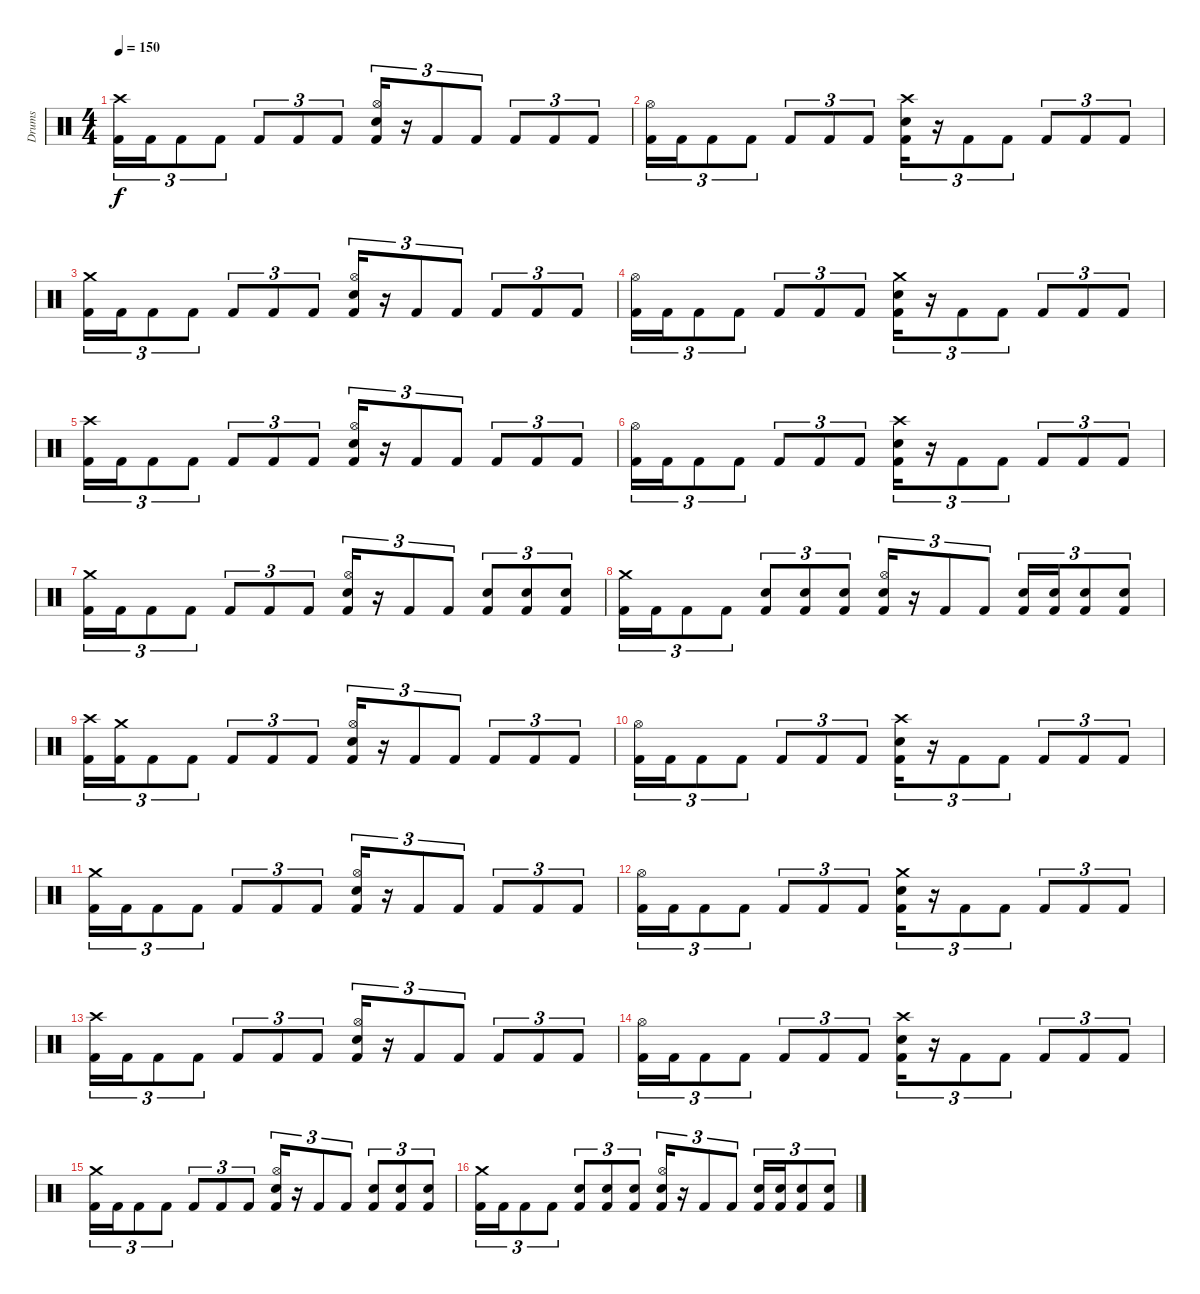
\track ("Drums" "Drums") {instrument percussion}
\staff {score}
\articulation defaults
\ts (4 4)
\tempo 150
\clef neutral
\ks c
("Crash high (hit)" "Kick (hit) 2").16{tu (3 2) dy f} "Kick (hit) 2".16{tu (3 2)} "Kick (hit) 2".8{tu (3 2)} "Kick (hit) 2".8{tu (3 2)} "Kick (hit) 2".8{tu (3 2)} "Kick (hit) 2".8{tu (3 2)} "Kick (hit) 2".8{tu (3 2)} ("Hi-Hat (open)" "Snare (hit) 2" "Kick (hit) 2").16{tu (3 2)} r.16{tu (3 2)} "Kick (hit) 2".8{tu (3 2)} "Kick (hit) 2".8{tu (3 2)} "Kick (hit) 2".8{tu (3 2)} "Kick (hit) 2".8{tu (3 2)} "Kick (hit) 2".8{tu (3 2)} |
("Hi-Hat (open)" "Kick (hit) 2").16{tu (3 2)} "Kick (hit) 2".16{tu (3 2)} "Kick (hit) 2".8{tu (3 2)} "Kick (hit) 2".8{tu (3 2)} "Kick (hit) 2".8{tu (3 2)} "Kick (hit) 2".8{tu (3 2)} "Kick (hit) 2".8{tu (3 2)} ("Crash high (hit)" "Snare (hit) 2" "Kick (hit) 2").16{tu (3 2)} r.16{tu (3 2)} "Kick (hit) 2".8{tu (3 2)} "Kick (hit) 2".8{tu (3 2)} "Kick (hit) 2".8{tu (3 2)} "Kick (hit) 2".8{tu (3 2)} "Kick (hit) 2".8{tu (3 2)} |
("Crash medium (hit)" "Kick (hit) 2").16{tu (3 2)} "Kick (hit) 2".16{tu (3 2)} "Kick (hit) 2".8{tu (3 2)} "Kick (hit) 2".8{tu (3 2)} "Kick (hit) 2".8{tu (3 2)} "Kick (hit) 2".8{tu (3 2)} "Kick (hit) 2".8{tu (3 2)} ("Hi-Hat (open)" "Snare (hit) 2" "Kick (hit) 2").16{tu (3 2)} r.16{tu (3 2)} "Kick (hit) 2".8{tu (3 2)} "Kick (hit) 2".8{tu (3 2)} "Kick (hit) 2".8{tu (3 2)} "Kick (hit) 2".8{tu (3 2)} "Kick (hit) 2".8{tu (3 2)} |
("Hi-Hat (open)" "Kick (hit) 2").16{tu (3 2)} "Kick (hit) 2".16{tu (3 2)} "Kick (hit) 2".8{tu (3 2)} "Kick (hit) 2".8{tu (3 2)} "Kick (hit) 2".8{tu (3 2)} "Kick (hit) 2".8{tu (3 2)} "Kick (hit) 2".8{tu (3 2)} ("Crash medium (hit)" "Snare (hit) 2" "Kick (hit) 2").16{tu (3 2)} r.16{tu (3 2)} "Kick (hit) 2".8{tu (3 2)} "Kick (hit) 2".8{tu (3 2)} "Kick (hit) 2".8{tu (3 2)} "Kick (hit) 2".8{tu (3 2)} "Kick (hit) 2".8{tu (3 2)} |
("Crash high (hit)" "Kick (hit) 2").16{tu (3 2)} "Kick (hit) 2".16{tu (3 2)} "Kick (hit) 2".8{tu (3 2)} "Kick (hit) 2".8{tu (3 2)} "Kick (hit) 2".8{tu (3 2)} "Kick (hit) 2".8{tu (3 2)} "Kick (hit) 2".8{tu (3 2)} ("Hi-Hat (open)" "Snare (hit) 2" "Kick (hit) 2").16{tu (3 2)} r.16{tu (3 2)} "Kick (hit) 2".8{tu (3 2)} "Kick (hit) 2".8{tu (3 2)} "Kick (hit) 2".8{tu (3 2)} "Kick (hit) 2".8{tu (3 2)} "Kick (hit) 2".8{tu (3 2)} |
("Hi-Hat (open)" "Kick (hit) 2").16{tu (3 2)} "Kick (hit) 2".16{tu (3 2)} "Kick (hit) 2".8{tu (3 2)} "Kick (hit) 2".8{tu (3 2)} "Kick (hit) 2".8{tu (3 2)} "Kick (hit) 2".8{tu (3 2)} "Kick (hit) 2".8{tu (3 2)} ("Crash high (hit)" "Snare (hit) 2" "Kick (hit) 2").16{tu (3 2)} r.16{tu (3 2)} "Kick (hit) 2".8{tu (3 2)} "Kick (hit) 2".8{tu (3 2)} "Kick (hit) 2".8{tu (3 2)} "Kick (hit) 2".8{tu (3 2)} "Kick (hit) 2".8{tu (3 2)} |
("Crash medium (hit)" "Kick (hit) 2").16{tu (3 2)} "Kick (hit) 2".16{tu (3 2)} "Kick (hit) 2".8{tu (3 2)} "Kick (hit) 2".8{tu (3 2)} "Kick (hit) 2".8{tu (3 2)} "Kick (hit) 2".8{tu (3 2)} "Kick (hit) 2".8{tu (3 2)} ("Hi-Hat (open)" "Snare (hit) 2" "Kick (hit) 2").16{tu (3 2)} r.16{tu (3 2)} "Kick (hit) 2".8{tu (3 2)} "Kick (hit) 2".8{tu (3 2)} ("Electric Snare (hit)" "Kick (hit) 2").8{tu (3 2)} ("Electric Snare (hit)" "Kick (hit) 2").8{tu (3 2)} ("Electric Snare (hit)" "Kick (hit) 2").8{tu (3 2)} |
("Crash medium (hit)" "Kick (hit) 2").16{tu (3 2)} "Kick (hit) 2".16{tu (3 2)} "Kick (hit) 2".8{tu (3 2)} "Kick (hit) 2".8{tu (3 2)} ("Electric Snare (hit)" "Kick (hit) 2").8{tu (3 2)} ("Electric Snare (hit)" "Kick (hit) 2").8{tu (3 2)} ("Electric Snare (hit)" "Kick (hit) 2").8{tu (3 2)} ("Hi-Hat (open)" "Snare (hit) 2" "Kick (hit) 2").16{tu (3 2)} r.16{tu (3 2)} "Kick (hit) 2".8{tu (3 2)} "Kick (hit) 2".8{tu (3 2)} ("Electric Snare (hit)" "Kick (hit) 2").16{tu (3 2)} ("Electric Snare (hit)" "Kick (hit) 2").16{tu (3 2)} ("Electric Snare (hit)" "Kick (hit) 2").8{tu (3 2)} ("Electric Snare (hit)" "Kick (hit) 2").8{tu (3 2)} |
("Crash high (hit)" "Kick (hit) 2").16{tu (3 2)} ("Crash medium (hit)" "Kick (hit) 2").16{tu (3 2)} "Kick (hit) 2".8{tu (3 2)} "Kick (hit) 2".8{tu (3 2)} "Kick (hit) 2".8{tu (3 2)} "Kick (hit) 2".8{tu (3 2)} "Kick (hit) 2".8{tu (3 2)} ("Hi-Hat (open)" "Snare (hit) 2" "Kick (hit) 2").16{tu (3 2)} r.16{tu (3 2)} "Kick (hit) 2".8{tu (3 2)} "Kick (hit) 2".8{tu (3 2)} "Kick (hit) 2".8{tu (3 2)} "Kick (hit) 2".8{tu (3 2)} "Kick (hit) 2".8{tu (3 2)} |
("Hi-Hat (open)" "Kick (hit) 2").16{tu (3 2)} "Kick (hit) 2".16{tu (3 2)} "Kick (hit) 2".8{tu (3 2)} "Kick (hit) 2".8{tu (3 2)} "Kick (hit) 2".8{tu (3 2)} "Kick (hit) 2".8{tu (3 2)} "Kick (hit) 2".8{tu (3 2)} ("Crash high (hit)" "Snare (hit) 2" "Kick (hit) 2").16{tu (3 2)} r.16{tu (3 2)} "Kick (hit) 2".8{tu (3 2)} "Kick (hit) 2".8{tu (3 2)} "Kick (hit) 2".8{tu (3 2)} "Kick (hit) 2".8{tu (3 2)} "Kick (hit) 2".8{tu (3 2)} |
("Crash medium (hit)" "Kick (hit) 2").16{tu (3 2)} "Kick (hit) 2".16{tu (3 2)} "Kick (hit) 2".8{tu (3 2)} "Kick (hit) 2".8{tu (3 2)} "Kick (hit) 2".8{tu (3 2)} "Kick (hit) 2".8{tu (3 2)} "Kick (hit) 2".8{tu (3 2)} ("Hi-Hat (open)" "Snare (hit) 2" "Kick (hit) 2").16{tu (3 2)} r.16{tu (3 2)} "Kick (hit) 2".8{tu (3 2)} "Kick (hit) 2".8{tu (3 2)} "Kick (hit) 2".8{tu (3 2)} "Kick (hit) 2".8{tu (3 2)} "Kick (hit) 2".8{tu (3 2)} |
("Hi-Hat (open)" "Kick (hit) 2").16{tu (3 2)} "Kick (hit) 2".16{tu (3 2)} "Kick (hit) 2".8{tu (3 2)} "Kick (hit) 2".8{tu (3 2)} "Kick (hit) 2".8{tu (3 2)} "Kick (hit) 2".8{tu (3 2)} "Kick (hit) 2".8{tu (3 2)} ("Crash medium (hit)" "Snare (hit) 2" "Kick (hit) 2").16{tu (3 2)} r.16{tu (3 2)} "Kick (hit) 2".8{tu (3 2)} "Kick (hit) 2".8{tu (3 2)} "Kick (hit) 2".8{tu (3 2)} "Kick (hit) 2".8{tu (3 2)} "Kick (hit) 2".8{tu (3 2)} |
("Crash high (hit)" "Kick (hit) 2").16{tu (3 2)} "Kick (hit) 2".16{tu (3 2)} "Kick (hit) 2".8{tu (3 2)} "Kick (hit) 2".8{tu (3 2)} "Kick (hit) 2".8{tu (3 2)} "Kick (hit) 2".8{tu (3 2)} "Kick (hit) 2".8{tu (3 2)} ("Hi-Hat (open)" "Snare (hit) 2" "Kick (hit) 2").16{tu (3 2)} r.16{tu (3 2)} "Kick (hit) 2".8{tu (3 2)} "Kick (hit) 2".8{tu (3 2)} "Kick (hit) 2".8{tu (3 2)} "Kick (hit) 2".8{tu (3 2)} "Kick (hit) 2".8{tu (3 2)} |
("Hi-Hat (open)" "Kick (hit) 2").16{tu (3 2)} "Kick (hit) 2".16{tu (3 2)} "Kick (hit) 2".8{tu (3 2)} "Kick (hit) 2".8{tu (3 2)} "Kick (hit) 2".8{tu (3 2)} "Kick (hit) 2".8{tu (3 2)} "Kick (hit) 2".8{tu (3 2)} ("Crash high (hit)" "Snare (hit) 2" "Kick (hit) 2").16{tu (3 2)} r.16{tu (3 2)} "Kick (hit) 2".8{tu (3 2)} "Kick (hit) 2".8{tu (3 2)} "Kick (hit) 2".8{tu (3 2)} "Kick (hit) 2".8{tu (3 2)} "Kick (hit) 2".8{tu (3 2)} |
("Crash medium (hit)" "Kick (hit) 2").16{tu (3 2)} "Kick (hit) 2".16{tu (3 2)} "Kick (hit) 2".8{tu (3 2)} "Kick (hit) 2".8{tu (3 2)} "Kick (hit) 2".8{tu (3 2)} "Kick (hit) 2".8{tu (3 2)} "Kick (hit) 2".8{tu (3 2)} ("Hi-Hat (open)" "Snare (hit) 2" "Kick (hit) 2").16{tu (3 2)} r.16{tu (3 2)} "Kick (hit) 2".8{tu (3 2)} "Kick (hit) 2".8{tu (3 2)} ("Electric Snare (hit)" "Kick (hit) 2").8{tu (3 2)} ("Electric Snare (hit)" "Kick (hit) 2").8{tu (3 2)} ("Electric Snare (hit)" "Kick (hit) 2").8{tu (3 2)} |
("Crash medium (hit)" "Kick (hit) 2").16{tu (3 2)} "Kick (hit) 2".16{tu (3 2)} "Kick (hit) 2".8{tu (3 2)} "Kick (hit) 2".8{tu (3 2)} ("Electric Snare (hit)" "Kick (hit) 2").8{tu (3 2)} ("Electric Snare (hit)" "Kick (hit) 2").8{tu (3 2)} ("Electric Snare (hit)" "Kick (hit) 2").8{tu (3 2)} ("Hi-Hat (open)" "Snare (hit) 2" "Kick (hit) 2").16{tu (3 2)} r.16{tu (3 2)} "Kick (hit) 2".8{tu (3 2)} "Kick (hit) 2".8{tu (3 2)} ("Electric Snare (hit)" "Kick (hit) 2").16{tu (3 2)} ("Electric Snare (hit)" "Kick (hit) 2").16{tu (3 2)} ("Electric Snare (hit)" "Kick (hit) 2").8{tu (3 2)} ("Electric Snare (hit)" "Kick (hit) 2").8{tu (3 2)}
